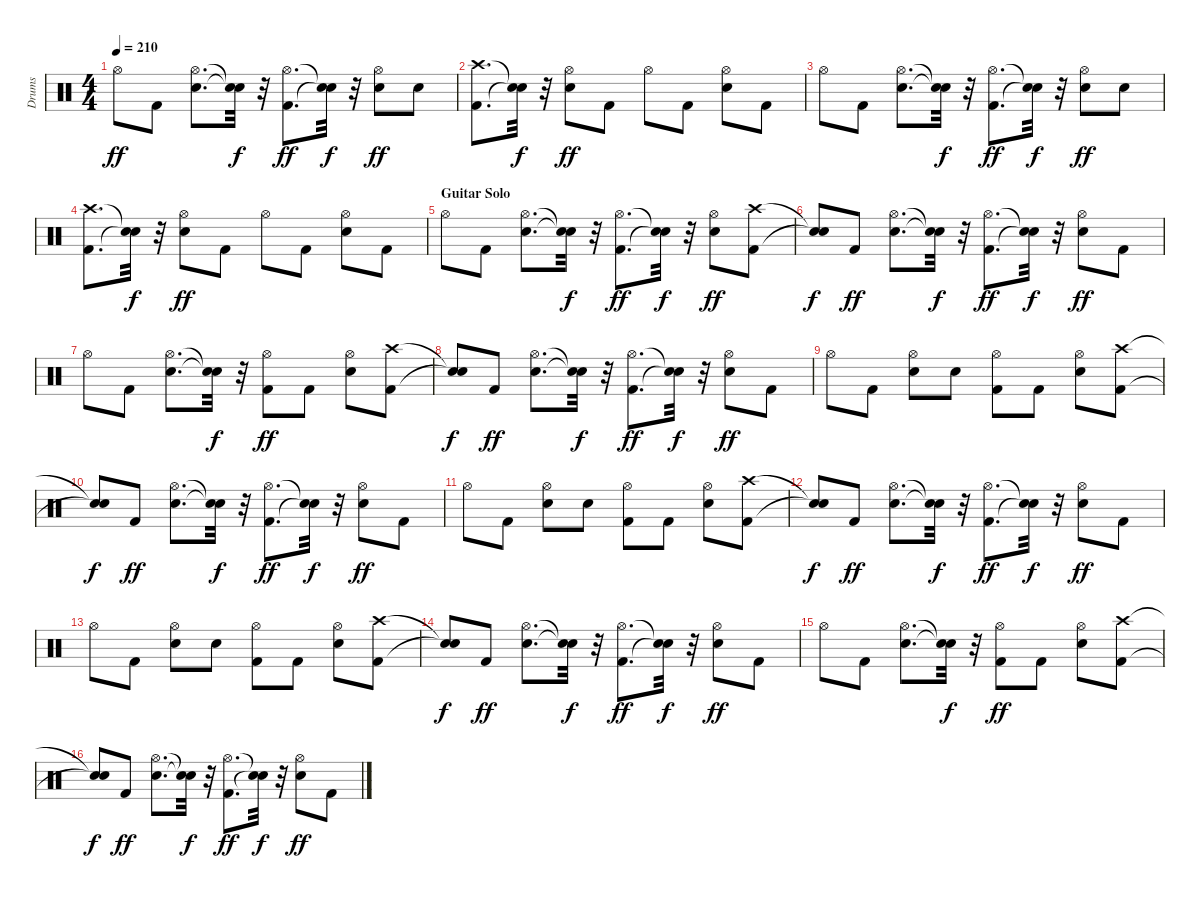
\track ("Drums" "Drums") {instrument percussion}
\staff {score}
\articulation defaults
\ts (4 4)
\tempo 210
\clef neutral
\ks c "Hi-Hat (open)".8{dy ff} "Kick (hit) 2".8
("Snare (hit) 2" "Hi-Hat (open)").8{d} ("Snare (hit)"{t} "Snare (hit)"{t}).32{dy f} r.32 ("Kick (hit) 2" "Hi-Hat (open)").8{d dy ff} ("Snare (hit)"{t} "Snare (hit)"{t}).32{dy f} r.32 ("Snare (hit) 2" "Hi-Hat (open)").8{dy ff} "Snare (hit) 2".8 |
("Kick (hit) 2" "Crash high (hit)").8{d} ("Snare (hit)"{t} "Snare (hit)"{t}).32{dy f} r.32 ("Snare (hit) 2" "Hi-Hat (open)").8{dy ff} "Kick (hit) 2".8 "Hi-Hat (open)".8 "Kick (hit) 2".8 ("Snare (hit) 2" "Hi-Hat (open)").8 "Kick (hit) 2".8 |
"Hi-Hat (open)".8 "Kick (hit) 2".8 ("Snare (hit) 2" "Hi-Hat (open)").8{d} ("Snare (hit)"{t} "Snare (hit)"{t}).32{dy f} r.32 ("Kick (hit) 2" "Hi-Hat (open)").8{d dy ff} ("Snare (hit)"{t} "Snare (hit)"{t}).32{dy f} r.32 ("Snare (hit) 2" "Hi-Hat (open)").8{dy ff} "Snare (hit) 2".8 |
("Kick (hit) 2" "Crash high (hit)").8{d} ("Snare (hit)"{t} "Snare (hit)"{t}).32{dy f} r.32 ("Snare (hit) 2" "Hi-Hat (open)").8{dy ff} "Kick (hit) 2".8 "Hi-Hat (open)".8 "Kick (hit) 2".8 ("Snare (hit) 2" "Hi-Hat (open)").8 "Kick (hit) 2".8 |
\section ("" "Guitar Solo")
"Hi-Hat (open)".8 "Kick (hit) 2".8 ("Snare (hit) 2" "Hi-Hat (open)").8{d} ("Snare (hit)"{t} "Snare (hit)"{t}).32{dy f} r.32 ("Kick (hit) 2" "Hi-Hat (open)").8{d dy ff} ("Snare (hit)"{t} "Snare (hit)"{t}).32{dy f} r.32 ("Snare (hit) 2" "Hi-Hat (open)").8{dy ff} ("Kick (hit) 2" "Crash high (hit)").8 |
("Snare (hit)"{t} "Snare (hit)"{t}).8{dy f} "Kick (hit) 2".8{dy ff} ("Snare (hit) 2" "Hi-Hat (open)").8{d} ("Snare (hit)"{t} "Snare (hit)"{t}).32{dy f} r.32 ("Kick (hit) 2" "Hi-Hat (open)").8{d dy ff} ("Snare (hit)"{t} "Snare (hit)"{t}).32{dy f} r.32 ("Snare (hit) 2" "Hi-Hat (open)").8{dy ff} "Kick (hit) 2".8 |
"Hi-Hat (open)".8 "Kick (hit) 2".8 ("Snare (hit) 2" "Hi-Hat (open)").8{d} ("Snare (hit)"{t} "Snare (hit)"{t}).32{dy f} r.32 ("Kick (hit) 2" "Hi-Hat (open)").8{dy ff} "Kick (hit) 2".8 ("Snare (hit) 2" "Hi-Hat (open)").8 ("Kick (hit) 2" "Crash high (hit)").8 |
("Snare (hit)"{t} "Snare (hit)"{t}).8{dy f} "Kick (hit) 2".8{dy ff} ("Snare (hit) 2" "Hi-Hat (open)").8{d} ("Snare (hit)"{t} "Snare (hit)"{t}).32{dy f} r.32 ("Kick (hit) 2" "Hi-Hat (open)").8{d dy ff} ("Snare (hit)"{t} "Snare (hit)"{t}).32{dy f} r.32 ("Snare (hit) 2" "Hi-Hat (open)").8{dy ff} "Kick (hit) 2".8 |
"Hi-Hat (open)".8 "Kick (hit) 2".8 ("Snare (hit) 2" "Hi-Hat (open)").8 "Snare (hit) 2".8 ("Kick (hit) 2" "Hi-Hat (open)").8 "Kick (hit) 2".8 ("Snare (hit) 2" "Hi-Hat (open)").8 ("Kick (hit) 2" "Crash high (hit)").8 |
("Snare (hit)"{t} "Snare (hit)"{t}).8{dy f} "Kick (hit) 2".8{dy ff} ("Snare (hit) 2" "Hi-Hat (open)").8{d} ("Snare (hit)"{t} "Snare (hit)"{t}).32{dy f} r.32 ("Kick (hit) 2" "Hi-Hat (open)").8{d dy ff} ("Snare (hit)"{t} "Snare (hit)"{t}).32{dy f} r.32 ("Snare (hit) 2" "Hi-Hat (open)").8{dy ff} "Kick (hit) 2".8 |
"Hi-Hat (open)".8 "Kick (hit) 2".8 ("Snare (hit) 2" "Hi-Hat (open)").8 "Snare (hit) 2".8 ("Kick (hit) 2" "Hi-Hat (open)").8 "Kick (hit) 2".8 ("Snare (hit) 2" "Hi-Hat (open)").8 ("Kick (hit) 2" "Crash high (hit)").8 |
("Snare (hit)"{t} "Snare (hit)"{t}).8{dy f} "Kick (hit) 2".8{dy ff} ("Snare (hit) 2" "Hi-Hat (open)").8{d} ("Snare (hit)"{t} "Snare (hit)"{t}).32{dy f} r.32 ("Kick (hit) 2" "Hi-Hat (open)").8{d dy ff} ("Snare (hit)"{t} "Snare (hit)"{t}).32{dy f} r.32 ("Snare (hit) 2" "Hi-Hat (open)").8{dy ff} "Kick (hit) 2".8 |
"Hi-Hat (open)".8 "Kick (hit) 2".8 ("Snare (hit) 2" "Hi-Hat (open)").8 "Snare (hit) 2".8 ("Kick (hit) 2" "Hi-Hat (open)").8 "Kick (hit) 2".8 ("Snare (hit) 2" "Hi-Hat (open)").8 ("Kick (hit) 2" "Crash high (hit)").8 |
("Snare (hit)"{t} "Snare (hit)"{t}).8{dy f} "Kick (hit) 2".8{dy ff} ("Snare (hit) 2" "Hi-Hat (open)").8{d} ("Snare (hit)"{t} "Snare (hit)"{t}).32{dy f} r.32 ("Kick (hit) 2" "Hi-Hat (open)").8{d dy ff} ("Snare (hit)"{t} "Snare (hit)"{t}).32{dy f} r.32 ("Snare (hit) 2" "Hi-Hat (open)").8{dy ff} "Kick (hit) 2".8 |
"Hi-Hat (open)".8 "Kick (hit) 2".8 ("Snare (hit) 2" "Hi-Hat (open)").8{d} ("Snare (hit)"{t} "Snare (hit)"{t}).32{dy f} r.32 ("Kick (hit) 2" "Hi-Hat (open)").8{dy ff} "Kick (hit) 2".8 ("Snare (hit) 2" "Hi-Hat (open)").8 ("Kick (hit) 2" "Crash high (hit)").8 |
("Snare (hit)"{t} "Snare (hit)"{t}).8{dy f} "Kick (hit) 2".8{dy ff} ("Snare (hit) 2" "Hi-Hat (open)").8{d} ("Snare (hit)"{t} "Snare (hit)"{t}).32{dy f} r.32 ("Kick (hit) 2" "Hi-Hat (open)").8{d dy ff} ("Snare (hit)"{t} "Snare (hit)"{t}).32{dy f} r.32 ("Snare (hit) 2" "Hi-Hat (open)").8{dy ff} "Kick (hit) 2".8
